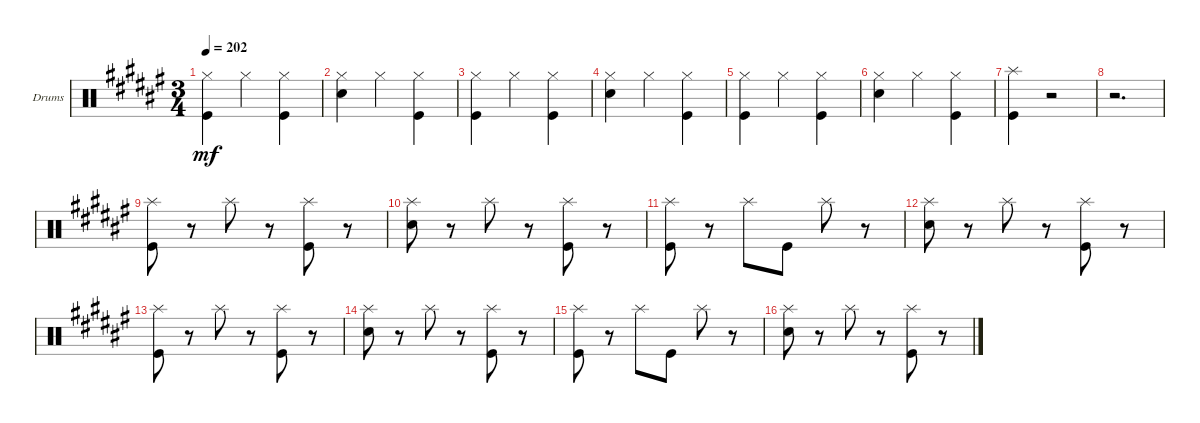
\defaultSystemsLayout 4
\bracketExtendMode groupsimilarinstruments
\firstSystemTrackNameOrientation horizontal
\otherSystemsTrackNameOrientation horizontal
\track ("Drumkit" "Drums") {instrument percussion}
\staff {score}
\articulation defaults
\ts (3 4)
\tempo 202
\clef neutral
\ks f#
("Hi-Hat (closed)" "Kick (hit)").4{dy mf} "Hi-Hat (closed)".4 ("Hi-Hat (closed)" "Kick (hit)").4 |
("Snare (hit) 2" "Hi-Hat (closed)").4 "Hi-Hat (closed)".4 ("Hi-Hat (closed)" "Kick (hit)").4 |
("Kick (hit)" "Hi-Hat (closed)").4 "Hi-Hat (closed)".4 ("Hi-Hat (closed)" "Kick (hit)").4 |
("Hi-Hat (closed)" "Snare (hit) 2").4 "Hi-Hat (closed)".4 ("Hi-Hat (closed)" "Kick (hit)").4 |
("Hi-Hat (closed)" "Kick (hit)").4 "Hi-Hat (closed)".4 ("Hi-Hat (closed)" "Kick (hit)").4 |
("Snare (hit) 2" "Hi-Hat (closed)").4 "Hi-Hat (closed)".4 ("Hi-Hat (closed)" "Kick (hit)").4 |
("Kick (hit)" "Splash (hit)").4 r.2 |
r.2{d} |
("Kick (hit)" "Splash (hit)").8 r.8 "Splash (hit)".8 r.8 ("Splash (hit)" "Kick (hit)").8 r.8 |
("Snare (hit) 2" "Splash (hit)").8 r.8 "Splash (hit)".8 r.8 ("Kick (hit)" "Splash (hit)").8 r.8 |
("Kick (hit)" "Splash (hit)").8 r.8 "Splash (hit)".8 "Kick (hit)".8 "Splash (hit)".8 r.8 |
("Snare (hit) 2" "Splash (hit)").8 r.8 "Splash (hit)".8 r.8 ("Kick (hit)" "Splash (hit)").8 r.8 |
("Kick (hit)" "Splash (hit)").8 r.8 "Splash (hit)".8 r.8 ("Splash (hit)" "Kick (hit)").8 r.8 |
("Snare (hit) 2" "Splash (hit)").8 r.8 "Splash (hit)".8 r.8 ("Kick (hit)" "Splash (hit)").8 r.8 |
("Kick (hit)" "Splash (hit)").8 r.8 "Splash (hit)".8 "Kick (hit)".8 "Splash (hit)".8 r.8 |
("Snare (hit) 2" "Splash (hit)").8 r.8 "Splash (hit)".8 r.8 ("Kick (hit)" "Splash (hit)").8 r.8
